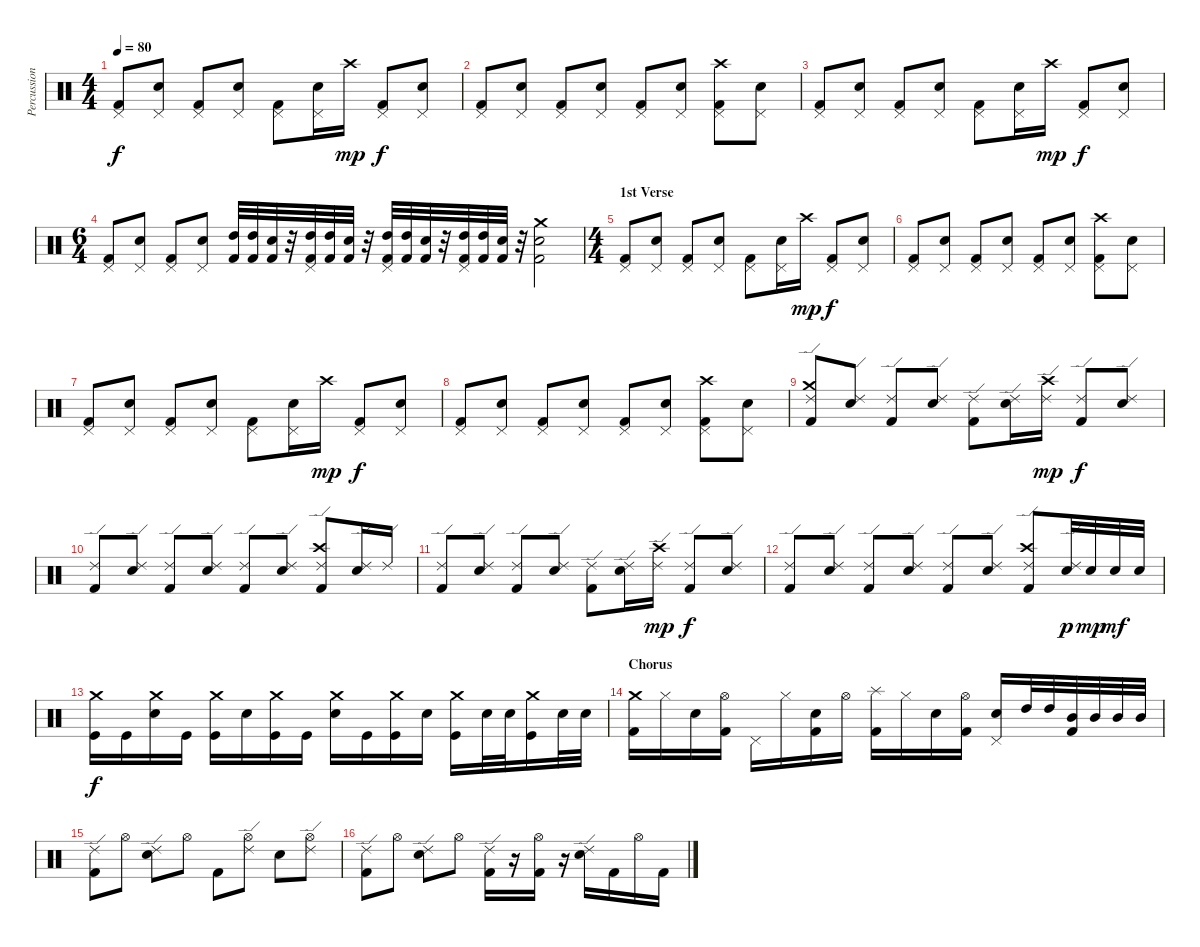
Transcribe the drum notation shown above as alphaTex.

\track ("Percussion" "Percussion") {instrument percussion}
\staff {score}
\articulation defaults
\ts (4 4)
\tempo 80
\clef neutral
\ks c
("Pedal Hi-Hat (hit)" "Kick (hit) 2").8{dy f} ("Pedal Hi-Hat (hit)" "Electric Snare (hit)").8 ("Pedal Hi-Hat (hit)" "Kick (hit) 2").8 ("Pedal Hi-Hat (hit)" "Electric Snare (hit)").8 ("Pedal Hi-Hat (hit)" "Kick (hit) 2").8 ("Pedal Hi-Hat (hit)" "Electric Snare (hit)").16 "Crash high (hit)".16{dy mp} ("Pedal Hi-Hat (hit)" "Kick (hit) 2").8{dy f} ("Pedal Hi-Hat (hit)" "Electric Snare (hit)").8 |
("Pedal Hi-Hat (hit)" "Kick (hit) 2").8 ("Pedal Hi-Hat (hit)" "Electric Snare (hit)").8 ("Pedal Hi-Hat (hit)" "Kick (hit) 2").8 ("Pedal Hi-Hat (hit)" "Electric Snare (hit)").8 ("Pedal Hi-Hat (hit)" "Kick (hit) 2").8 ("Pedal Hi-Hat (hit)" "Electric Snare (hit)").8 ("Crash high (hit)" "Pedal Hi-Hat (hit)" "Kick (hit) 2").8 ("Pedal Hi-Hat (hit)" "Electric Snare (hit)").8 |
("Pedal Hi-Hat (hit)" "Kick (hit) 2").8 ("Pedal Hi-Hat (hit)" "Electric Snare (hit)").8 ("Pedal Hi-Hat (hit)" "Kick (hit) 2").8 ("Pedal Hi-Hat (hit)" "Electric Snare (hit)").8 ("Pedal Hi-Hat (hit)" "Kick (hit) 2").8 ("Pedal Hi-Hat (hit)" "Electric Snare (hit)").16 "Crash high (hit)".16{dy mp} ("Pedal Hi-Hat (hit)" "Kick (hit) 2").8{dy f} ("Pedal Hi-Hat (hit)" "Electric Snare (hit)").8 |
\ts (6 4)
("Pedal Hi-Hat (hit)" "Kick (hit) 2").8 ("Pedal Hi-Hat (hit)" "Electric Snare (hit)").8 ("Pedal Hi-Hat (hit)" "Kick (hit) 2").8 ("Pedal Hi-Hat (hit)" "Electric Snare (hit)").8 ("High Tom (hit)" "Kick (hit) 2").32 ("High Tom (hit)" "Kick (hit) 2").32 ("Electric Snare (hit)" "Kick (hit) 2").32 r.32 ("Pedal Hi-Hat (hit)" "High Tom (hit)" "Kick (hit) 2").32 ("High Tom (hit)" "Kick (hit) 2").32 ("Electric Snare (hit)" "Kick (hit) 2").32 r.32 ("Pedal Hi-Hat (hit)" "High Tom (hit)" "Kick (hit) 2").32 ("High Tom (hit)" "Kick (hit) 2").32 ("Electric Snare (hit)" "Kick (hit) 2").32 r.32 ("Pedal Hi-Hat (hit)" "High Tom (hit)" "Kick (hit) 2").32 ("High Tom (hit)" "Kick (hit) 2").32 ("Electric Snare (hit)" "Kick (hit) 2").32 r.32 ("Crash medium (hit)" "Electric Snare (hit)" "Kick (hit) 2").2 |
\ts (4 4)
\section ("" "1st Verse")
("Pedal Hi-Hat (hit)" "Kick (hit) 2").8 ("Pedal Hi-Hat (hit)" "Electric Snare (hit)").8 ("Pedal Hi-Hat (hit)" "Kick (hit) 2").8 ("Pedal Hi-Hat (hit)" "Electric Snare (hit)").8 ("Pedal Hi-Hat (hit)" "Kick (hit) 2").8 ("Pedal Hi-Hat (hit)" "Electric Snare (hit)").16 "Crash high (hit)".16{dy mp} ("Pedal Hi-Hat (hit)" "Kick (hit) 2").8{dy f} ("Pedal Hi-Hat (hit)" "Electric Snare (hit)").8 |
("Pedal Hi-Hat (hit)" "Kick (hit) 2").8 ("Pedal Hi-Hat (hit)" "Electric Snare (hit)").8 ("Pedal Hi-Hat (hit)" "Kick (hit) 2").8 ("Pedal Hi-Hat (hit)" "Electric Snare (hit)").8 ("Pedal Hi-Hat (hit)" "Kick (hit) 2").8 ("Pedal Hi-Hat (hit)" "Electric Snare (hit)").8 ("Crash high (hit)" "Pedal Hi-Hat (hit)" "Kick (hit) 2").8 ("Pedal Hi-Hat (hit)" "Electric Snare (hit)").8 |
("Pedal Hi-Hat (hit)" "Kick (hit) 2").8 ("Pedal Hi-Hat (hit)" "Electric Snare (hit)").8 ("Pedal Hi-Hat (hit)" "Kick (hit) 2").8 ("Pedal Hi-Hat (hit)" "Electric Snare (hit)").8 ("Pedal Hi-Hat (hit)" "Kick (hit) 2").8 ("Pedal Hi-Hat (hit)" "Electric Snare (hit)").16 "Crash high (hit)".16{dy mp} ("Pedal Hi-Hat (hit)" "Kick (hit) 2").8{dy f} ("Pedal Hi-Hat (hit)" "Electric Snare (hit)").8 |
("Pedal Hi-Hat (hit)" "Kick (hit) 2").8 ("Pedal Hi-Hat (hit)" "Electric Snare (hit)").8 ("Pedal Hi-Hat (hit)" "Kick (hit) 2").8 ("Pedal Hi-Hat (hit)" "Electric Snare (hit)").8 ("Pedal Hi-Hat (hit)" "Kick (hit) 2").8 ("Pedal Hi-Hat (hit)" "Electric Snare (hit)").8 ("Crash high (hit)" "Pedal Hi-Hat (hit)" "Kick (hit) 2").8 ("Pedal Hi-Hat (hit)" "Electric Snare (hit)").8 |
("Crash medium (hit)" "Ride (edge) 2" "Kick (hit) 2").8 ("Ride (edge) 2" "Electric Snare (hit)").8 ("Ride (edge) 2" "Kick (hit) 2").8 ("Ride (edge) 2" "Electric Snare (hit)").8 ("Ride (edge) 2" "Kick (hit) 2").8 ("Ride (edge) 2" "Electric Snare (hit)").16 ("Crash high (hit)" "Ride (edge) 2").16{dy mp} ("Ride (edge) 2" "Kick (hit) 2").8{dy f} ("Ride (edge) 2" "Electric Snare (hit)").8 |
("Ride (edge) 2" "Kick (hit) 2").8 ("Ride (edge) 2" "Electric Snare (hit)").8 ("Ride (edge) 2" "Kick (hit) 2").8 ("Ride (edge) 2" "Electric Snare (hit)").8 ("Ride (edge) 2" "Kick (hit) 2").8 ("Ride (edge) 2" "Electric Snare (hit)").8 ("Crash high (hit)" "Ride (edge) 2" "Kick (hit) 2").8 ("Ride (edge) 2" "Electric Snare (hit)").16 "Ride (edge) 2".16 |
("Ride (edge) 2" "Kick (hit) 2").8 ("Ride (edge) 2" "Electric Snare (hit)").8 ("Ride (edge) 2" "Kick (hit) 2").8 ("Ride (edge) 2" "Electric Snare (hit)").8 ("Ride (edge) 2" "Kick (hit) 2").8 ("Ride (edge) 2" "Electric Snare (hit)").16 ("Crash high (hit)" "Ride (edge) 2").16{dy mp} ("Ride (edge) 2" "Kick (hit) 2").8{dy f} ("Ride (edge) 2" "Electric Snare (hit)").8 |
("Ride (edge) 2" "Kick (hit) 2").8 ("Ride (edge) 2" "Electric Snare (hit)").8 ("Ride (edge) 2" "Kick (hit) 2").8 ("Ride (edge) 2" "Electric Snare (hit)").8 ("Ride (edge) 2" "Kick (hit) 2").8 ("Ride (edge) 2" "Electric Snare (hit)").8 ("Crash high (hit)" "Ride (edge) 2" "Kick (hit) 2").8 ("Ride (edge) 2" "Electric Snare (hit)").32{dy p} "Electric Snare (hit)".32{dy mp} "Electric Snare (hit)".32{dy mf} "Electric Snare (hit)".32 |
("Crash medium (hit)" "Kick (hit)").16{dy f} "Kick (hit)".16 ("Crash medium (hit)" "Electric Snare (hit)").16 "Kick (hit)".16 ("Crash medium (hit)" "Kick (hit)").16 "Electric Snare (hit)".16 ("Crash medium (hit)" "Kick (hit)").16 "Kick (hit)".16 ("Crash medium (hit)" "Electric Snare (hit)").16 "Kick (hit)".16 ("Crash medium (hit)" "Kick (hit)").16 "Electric Snare (hit)".16 ("Crash medium (hit)" "Kick (hit)").16 "Electric Snare (hit)".32 "Electric Snare (hit)".32 ("Crash medium (hit)" "Kick (hit)").16 "Electric Snare (hit)".32 "Electric Snare (hit)".32 |
\section ("" "Chorus")
("Crash medium (hit)" "Kick (hit) 2").16 "Hi-Hat (closed)".16 "Electric Snare (hit)".16 ("Hi-Hat (open)" "Kick (hit) 2").16 "Pedal Hi-Hat (hit)".16 "Hi-Hat (closed)".16 ("Electric Snare (hit)" "Kick (hit) 2").16 "Hi-Hat (open)".16 ("Splash (hit)" "Kick (hit) 2").16 "Hi-Hat (closed)".16 "Electric Snare (hit)".16 ("Hi-Hat (open)" "Kick (hit) 2").16 ("Pedal Hi-Hat (hit)" "Electric Snare (hit)").16 "High Tom (hit)".32 "High Tom (hit)".32 ("Mid Tom (hit)" "Kick (hit) 2").32 "Mid Tom (hit)".32 "Mid Tom (hit)".32 "Mid Tom (hit)".32 |
("Ride (edge) 2" "Kick (hit) 2").8 "Hi-Hat (open)".8 ("Ride (edge) 2" "Electric Snare (hit)").8 "Hi-Hat (open)".8 "Kick (hit) 2".8 ("Ride (edge) 2" "Hi-Hat (open)").8 "Electric Snare (hit)".8 ("Ride (edge) 2" "Hi-Hat (open)").8 |
("Ride (edge) 2" "Kick (hit) 2").8 "Hi-Hat (open)".8 ("Ride (edge) 2" "Electric Snare (hit)").8 "Hi-Hat (open)".8 ("Ride (edge) 2" "Kick (hit) 2").16 r.16 ("Hi-Hat (open)" "Kick (hit) 2").16 r.16 ("Ride (edge) 2" "Electric Snare (hit)").16 "Kick (hit) 2".16 "Hi-Hat (open)".16 "Kick (hit) 2".16
